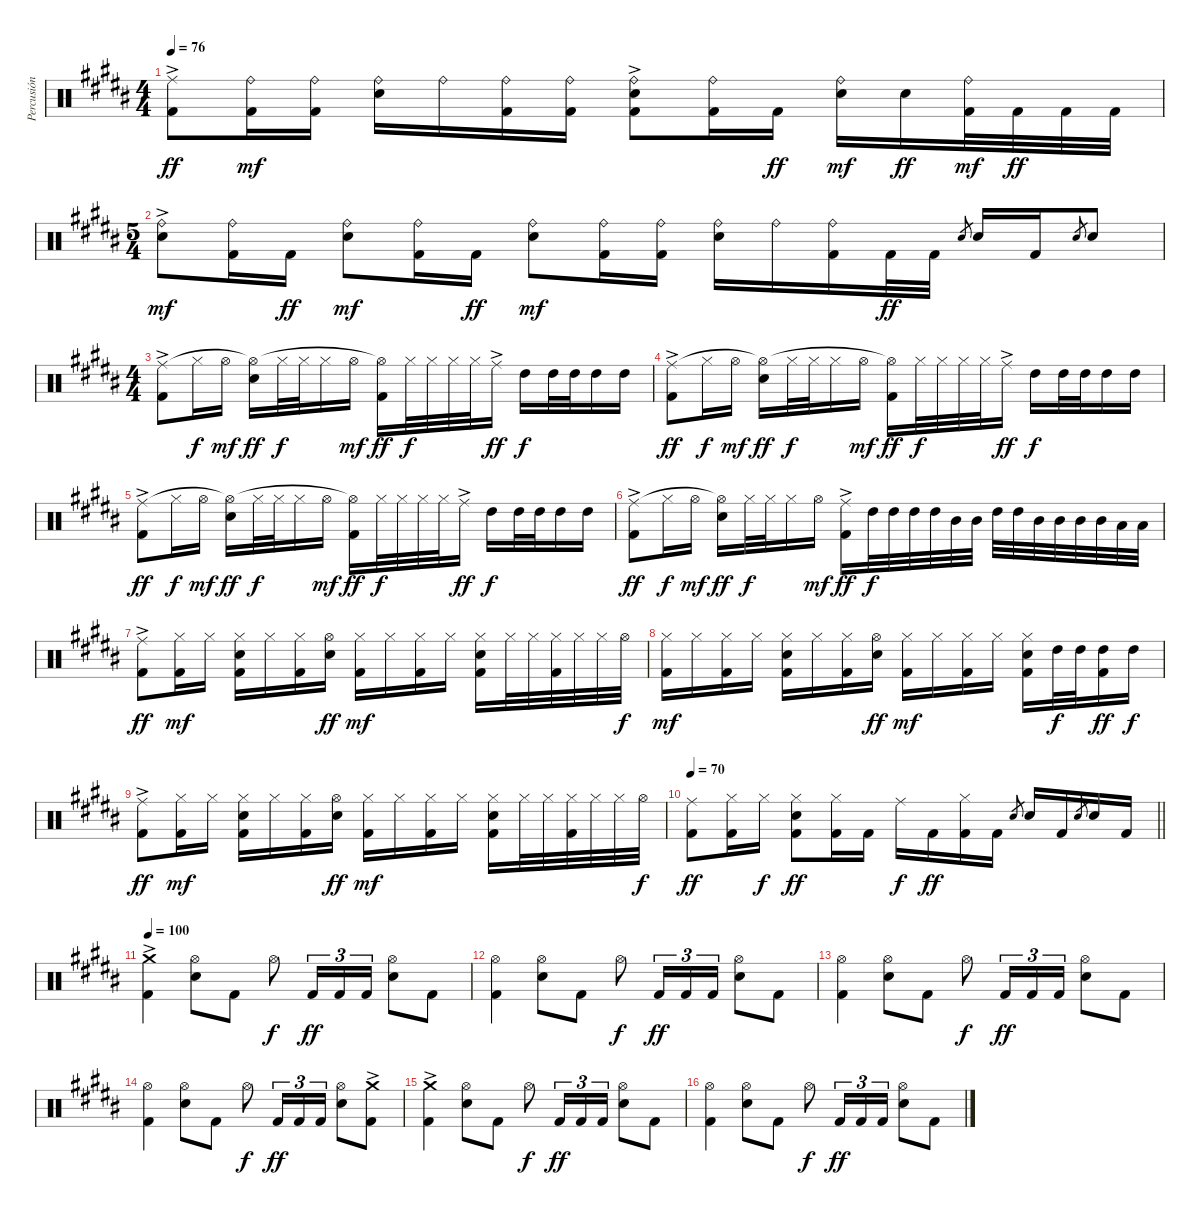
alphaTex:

\track ("Percusión" "Percusión") {instrument percussion}
\staff {score}
\articulation defaults
\ts (4 4)
\tempo 76
\clef neutral
\ks b
("Kick (hit) 2" "Ride (middle)"{ac}).8{dy ff} ("Kick (hit) 2" "Ride (bell)").16{dy mf} ("Kick (hit) 2" "Ride (bell)").16 ("Electric Snare (hit)" "Ride (bell)").16 "Ride (bell)".16 ("Kick (hit) 2" "Ride (bell)").16 ("Kick (hit) 2" "Ride (bell)").16 ("Electric Snare (hit)" "Kick (hit) 2" "Ride (bell)"{ac}).8 ("Kick (hit) 2" "Ride (bell)").16 "Kick (hit) 2".16{dy ff} ("Electric Snare (hit)" "Ride (bell)").16{dy mf} "Electric Snare (hit)".16{dy ff} ("Kick (hit) 2" "Ride (bell)").32{dy mf} "Kick (hit) 2".32{dy ff} "Kick (hit) 2".32 "Kick (hit) 2".32 |
\ts (5 4)
("Electric Snare (hit)" "Ride (bell)"{ac}).8{dy mf} ("Kick (hit) 2" "Ride (bell)").16 "Kick (hit) 2".16{dy ff} ("Electric Snare (hit)" "Ride (bell)").8{dy mf} ("Kick (hit) 2" "Ride (bell)").16 "Kick (hit) 2".16{dy ff} ("Electric Snare (hit)" "Ride (bell)").8{dy mf} ("Kick (hit) 2" "Ride (bell)").16 ("Kick (hit) 2" "Ride (bell)").16 ("Electric Snare (hit)" "Ride (bell)").16 "Ride (bell)".16 ("Kick (hit) 2" "Ride (bell)").16 "Kick (hit) 2".32{dy ff} "Kick (hit) 2".32 "Electric Snare (hit)".8{gr} "Electric Snare (hit)".16 "Kick (hit) 2".16 "Electric Snare (hit)".8{gr} "Electric Snare (hit)".8 |
\ts (4 4)
("Kick (hit) 2" "Ride (middle)"{ac}).8 "Hi-Hat (closed)".16{dy f} "Hi-Hat (open)".16{dy mf} ("Electric Snare (hit)" "Hi-Hat (open)"{t}).16{dy ff} "Hi-Hat (closed)".32{dy f} "Hi-Hat (closed)".32 "Hi-Hat (closed)".16 "Hi-Hat (open)".16{dy mf} ("Kick (hit) 2" "Hi-Hat (open)"{t}).16{dy ff} "Hi-Hat (closed)".32{dy f} "Hi-Hat (closed)".32 "Hi-Hat (closed)".32 "Hi-Hat (closed)".32 "Ride (middle)"{ac}.16{dy ff} "High Tom (hit)".16{dy f} "High Tom (hit)".32 "High Tom (hit)".32 "High Tom (hit)".16 "High Tom (hit)".16 |
("Kick (hit) 2" "Ride (middle)"{ac}).8{dy ff} "Hi-Hat (closed)".16{dy f} "Hi-Hat (open)".16{dy mf} ("Electric Snare (hit)" "Hi-Hat (open)"{t}).16{dy ff} "Hi-Hat (closed)".32{dy f} "Hi-Hat (closed)".32 "Hi-Hat (closed)".16 "Hi-Hat (open)".16{dy mf} ("Kick (hit) 2" "Hi-Hat (open)"{t}).16{dy ff} "Hi-Hat (closed)".32{dy f} "Hi-Hat (closed)".32 "Hi-Hat (closed)".32 "Hi-Hat (closed)".32 "Ride (middle)"{ac}.16{dy ff} "High Tom (hit)".16{dy f} "High Tom (hit)".32 "High Tom (hit)".32 "High Tom (hit)".16 "High Tom (hit)".16 |
("Kick (hit) 2" "Ride (middle)"{ac}).8{dy ff} "Hi-Hat (closed)".16{dy f} "Hi-Hat (open)".16{dy mf} ("Electric Snare (hit)" "Hi-Hat (open)"{t}).16{dy ff} "Hi-Hat (closed)".32{dy f} "Hi-Hat (closed)".32 "Hi-Hat (closed)".16 "Hi-Hat (open)".16{dy mf} ("Kick (hit) 2" "Hi-Hat (open)"{t}).16{dy ff} "Hi-Hat (closed)".32{dy f} "Hi-Hat (closed)".32 "Hi-Hat (closed)".32 "Hi-Hat (closed)".32 "Ride (middle)"{ac}.16{dy ff} "High Tom (hit)".16{dy f} "High Tom (hit)".32 "High Tom (hit)".32 "High Tom (hit)".16 "High Tom (hit)".16 |
("Kick (hit) 2" "Ride (middle)"{ac}).8{dy ff} "Hi-Hat (closed)".16{dy f} "Hi-Hat (open)".16{dy mf} ("Electric Snare (hit)" "Hi-Hat (open)"{t}).16{dy ff} "Hi-Hat (closed)".32{dy f} "Hi-Hat (closed)".32 "Hi-Hat (closed)".16 "Hi-Hat (open)".16{dy mf} ("Kick (hit) 2" "Ride (middle)"{ac}).16{dy ff} "High Tom (hit)".32{dy f} "High Tom (hit)".32 "High Tom (hit)".32 "High Tom (hit)".32 "Mid Tom (hit)".32 "Mid Tom (hit)".32 "High Tom (hit)".32 "High Tom (hit)".32 "Mid Tom (hit)".32 "Mid Tom (hit)".32 "Mid Tom (hit)".32 "Mid Tom (hit)".32 "Low Tom (hit)".32 "Low Tom (hit)".32 |
("Kick (hit) 2" "Ride (middle)"{ac}).8{dy ff} ("Kick (hit) 2" "Hi-Hat (closed)").16{dy mf} "Hi-Hat (closed)".16 ("Electric Snare (hit)" "Kick (hit) 2" "Hi-Hat (closed)").16 "Hi-Hat (closed)".16 ("Kick (hit) 2" "Hi-Hat (closed)").16 ("Electric Snare (hit)" "Hi-Hat (open)").16{dy ff} ("Kick (hit) 2" "Hi-Hat (closed)").16{dy mf} "Hi-Hat (closed)".16 ("Kick (hit) 2" "Hi-Hat (closed)").16 "Hi-Hat (closed)".16 ("Electric Snare (hit)" "Kick (hit) 2" "Hi-Hat (closed)").16 "Hi-Hat (closed)".32 "Hi-Hat (closed)".32 ("Kick (hit) 2" "Hi-Hat (closed)").32 "Hi-Hat (closed)".32 "Hi-Hat (closed)".32 "Hi-Hat (open)".32{dy f} |
("Kick (hit) 2" "Hi-Hat (closed)").16{dy mf} "Hi-Hat (closed)".16 ("Kick (hit) 2" "Hi-Hat (closed)").16 "Hi-Hat (closed)".16 ("Electric Snare (hit)" "Kick (hit) 2" "Hi-Hat (closed)").16 "Hi-Hat (closed)".16 ("Kick (hit) 2" "Hi-Hat (closed)").16 ("Electric Snare (hit)" "Hi-Hat (open)").16{dy ff} ("Kick (hit) 2" "Hi-Hat (closed)").16{dy mf} "Hi-Hat (closed)".16 ("Kick (hit) 2" "Hi-Hat (closed)").16 "Hi-Hat (closed)".16 ("Electric Snare (hit)" "Kick (hit) 2" "Hi-Hat (closed)").16 "High Tom (hit)".32{dy f} "High Tom (hit)".32 ("High Tom (hit)" "Kick (hit) 2").16{dy ff} "High Tom (hit)".16{dy f} |
("Kick (hit) 2" "Ride (middle)"{ac}).8{dy ff} ("Kick (hit) 2" "Hi-Hat (closed)").16{dy mf} "Hi-Hat (closed)".16 ("Electric Snare (hit)" "Kick (hit) 2" "Hi-Hat (closed)").16 "Hi-Hat (closed)".16 ("Kick (hit) 2" "Hi-Hat (closed)").16 ("Electric Snare (hit)" "Hi-Hat (open)").16{dy ff} ("Kick (hit) 2" "Hi-Hat (closed)").16{dy mf} "Hi-Hat (closed)".16 ("Kick (hit) 2" "Hi-Hat (closed)").16 "Hi-Hat (closed)".16 ("Electric Snare (hit)" "Kick (hit) 2" "Hi-Hat (closed)").16 "Hi-Hat (closed)".32 "Hi-Hat (closed)".32 ("Kick (hit) 2" "Hi-Hat (closed)").32 "Hi-Hat (closed)".32 "Hi-Hat (closed)".32 "Hi-Hat (open)".32{dy f} |
\tempo 70
\barLineRight lightlight
("Kick (hit) 2" "Ride (middle)").8{dy ff} ("Kick (hit) 2" "Hi-Hat (closed)").16 "Hi-Hat (closed)".16{dy f} ("Electric Snare (hit)" "Kick (hit) 2" "Hi-Hat (closed)").8{dy ff} ("Kick (hit) 2" "Hi-Hat (closed)").16 "Kick (hit) 2".16 "Ride (middle)".16{dy f} "Kick (hit) 2".16{dy ff} ("Kick (hit) 2" "Hi-Hat (closed)").16 "Kick (hit) 2".16 "Electric Snare (hit)".8{gr} "Electric Snare (hit)".16 "Kick (hit) 2".16 "Electric Snare (hit)".8{gr} "Electric Snare (hit)".16 "Kick (hit) 2".16 |
\tempo 100
("Kick (hit) 2" "Crash medium (hit)"{ac}).4 ("Electric Snare (hit)" "Hi-Hat (open)").8 "Kick (hit) 2".8 "Hi-Hat (open)".8{dy f} "Kick (hit) 2".16{tu (3 2) dy ff} "Kick (hit) 2".16{tu (3 2)} "Kick (hit) 2".16{tu (3 2)} ("Electric Snare (hit)" "Hi-Hat (open)").8 "Kick (hit) 2".8 |
("Kick (hit) 2" "Hi-Hat (open)").4 ("Electric Snare (hit)" "Hi-Hat (open)").8 "Kick (hit) 2".8 "Hi-Hat (open)".8{dy f} "Kick (hit) 2".16{tu (3 2) dy ff} "Kick (hit) 2".16{tu (3 2)} "Kick (hit) 2".16{tu (3 2)} ("Electric Snare (hit)" "Hi-Hat (open)").8 "Kick (hit) 2".8 |
("Kick (hit) 2" "Hi-Hat (open)").4 ("Electric Snare (hit)" "Hi-Hat (open)").8 "Kick (hit) 2".8 "Hi-Hat (open)".8{dy f} "Kick (hit) 2".16{tu (3 2) dy ff} "Kick (hit) 2".16{tu (3 2)} "Kick (hit) 2".16{tu (3 2)} ("Electric Snare (hit)" "Hi-Hat (open)").8 "Kick (hit) 2".8 |
("Kick (hit) 2" "Hi-Hat (open)").4 ("Electric Snare (hit)" "Hi-Hat (open)").8 "Kick (hit) 2".8 "Hi-Hat (open)".8{dy f} "Kick (hit) 2".16{tu (3 2) dy ff} "Kick (hit) 2".16{tu (3 2)} "Kick (hit) 2".16{tu (3 2)} ("Electric Snare (hit)" "Hi-Hat (open)").8 ("Kick (hit) 2" "Crash medium (hit)"{ac}).8 |
("Kick (hit) 2" "Crash medium (hit)"{ac}).4 ("Electric Snare (hit)" "Hi-Hat (open)").8 "Kick (hit) 2".8 "Hi-Hat (open)".8{dy f} "Kick (hit) 2".16{tu (3 2) dy ff} "Kick (hit) 2".16{tu (3 2)} "Kick (hit) 2".16{tu (3 2)} ("Electric Snare (hit)" "Hi-Hat (open)").8 "Kick (hit) 2".8 |
("Kick (hit) 2" "Hi-Hat (open)").4 ("Electric Snare (hit)" "Hi-Hat (open)").8 "Kick (hit) 2".8 "Hi-Hat (open)".8{dy f} "Kick (hit) 2".16{tu (3 2) dy ff} "Kick (hit) 2".16{tu (3 2)} "Kick (hit) 2".16{tu (3 2)} ("Electric Snare (hit)" "Hi-Hat (open)").8 "Kick (hit) 2".8
